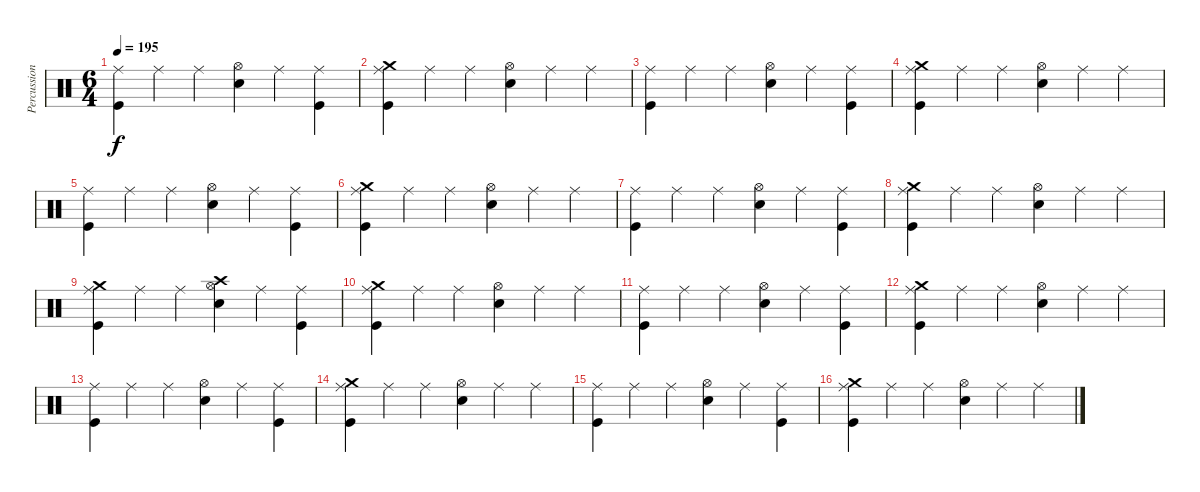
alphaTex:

\track ("Percussion" "Percussion") {instrument percussion}
\staff {score}
\articulation defaults
\ts (6 4)
\tempo 195
\clef neutral
\ks c
("Ride (middle)" "Kick (hit)").4{dy f} "Ride (middle)".4 "Ride (middle)".4 ("Hi-Hat (open)" "Electric Snare (hit)").4 "Ride (middle)".4 ("Ride (middle)" "Kick (hit)").4 |
("Crash medium (hit)" "Ride (middle)" "Kick (hit)").4 "Ride (middle)".4 "Ride (middle)".4 ("Hi-Hat (open)" "Electric Snare (hit)").4 "Ride (middle)".4 "Ride (middle)".4 |
("Ride (middle)" "Kick (hit)").4 "Ride (middle)".4 "Ride (middle)".4 ("Hi-Hat (open)" "Electric Snare (hit)").4 "Ride (middle)".4 ("Ride (middle)" "Kick (hit)").4 |
("Crash medium (hit)" "Ride (middle)" "Kick (hit)").4 "Ride (middle)".4 "Ride (middle)".4 ("Hi-Hat (open)" "Electric Snare (hit)").4 "Ride (middle)".4 "Ride (middle)".4 |
("Ride (middle)" "Kick (hit)").4 "Ride (middle)".4 "Ride (middle)".4 ("Hi-Hat (open)" "Electric Snare (hit)").4 "Ride (middle)".4 ("Ride (middle)" "Kick (hit)").4 |
("Crash medium (hit)" "Ride (middle)" "Kick (hit)").4 "Ride (middle)".4 "Ride (middle)".4 ("Hi-Hat (open)" "Electric Snare (hit)").4 "Ride (middle)".4 "Ride (middle)".4 |
("Ride (middle)" "Kick (hit)").4 "Ride (middle)".4 "Ride (middle)".4 ("Hi-Hat (open)" "Electric Snare (hit)").4 "Ride (middle)".4 ("Ride (middle)" "Kick (hit)").4 |
("Crash medium (hit)" "Ride (middle)" "Kick (hit)").4 "Ride (middle)".4 "Ride (middle)".4 ("Hi-Hat (open)" "Electric Snare (hit)").4 "Ride (middle)".4 "Ride (middle)".4 |
("Crash medium (hit)" "Ride (middle)" "Kick (hit)").4 "Ride (middle)".4 "Ride (middle)".4 ("Crash high (hit)" "Hi-Hat (open)" "Electric Snare (hit)").4 "Ride (middle)".4 ("Ride (middle)" "Kick (hit)").4 |
("Crash medium (hit)" "Ride (middle)" "Kick (hit)").4 "Ride (middle)".4 "Ride (middle)".4 ("Hi-Hat (open)" "Electric Snare (hit)").4 "Ride (middle)".4 "Ride (middle)".4 |
("Ride (middle)" "Kick (hit)").4 "Ride (middle)".4 "Ride (middle)".4 ("Hi-Hat (open)" "Electric Snare (hit)").4 "Ride (middle)".4 ("Ride (middle)" "Kick (hit)").4 |
("Crash medium (hit)" "Ride (middle)" "Kick (hit)").4 "Ride (middle)".4 "Ride (middle)".4 ("Hi-Hat (open)" "Electric Snare (hit)").4 "Ride (middle)".4 "Ride (middle)".4 |
("Ride (middle)" "Kick (hit)").4 "Ride (middle)".4 "Ride (middle)".4 ("Hi-Hat (open)" "Electric Snare (hit)").4 "Ride (middle)".4 ("Ride (middle)" "Kick (hit)").4 |
("Crash medium (hit)" "Ride (middle)" "Kick (hit)").4 "Ride (middle)".4 "Ride (middle)".4 ("Hi-Hat (open)" "Electric Snare (hit)").4 "Ride (middle)".4 "Ride (middle)".4 |
("Ride (middle)" "Kick (hit)").4 "Ride (middle)".4 "Ride (middle)".4 ("Hi-Hat (open)" "Electric Snare (hit)").4 "Ride (middle)".4 ("Ride (middle)" "Kick (hit)").4 |
("Crash medium (hit)" "Ride (middle)" "Kick (hit)").4 "Ride (middle)".4 "Ride (middle)".4 ("Hi-Hat (open)" "Electric Snare (hit)").4 "Ride (middle)".4 "Ride (middle)".4
